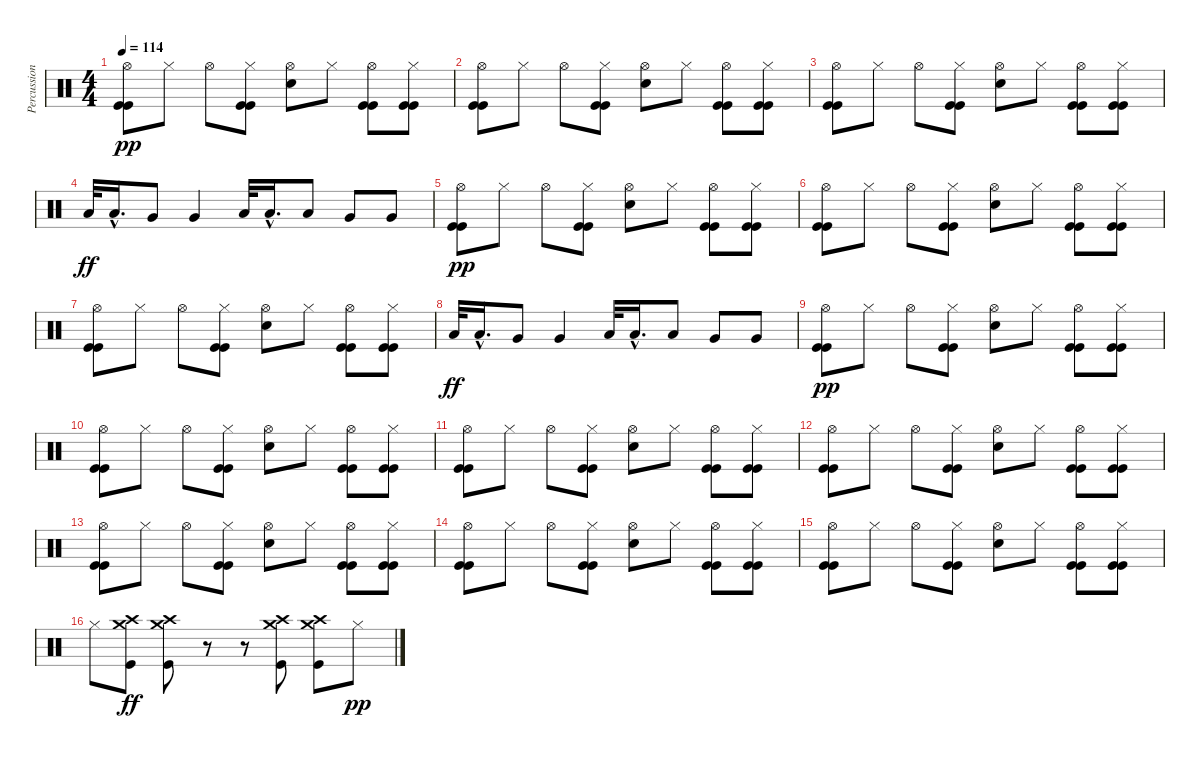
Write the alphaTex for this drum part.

\track ("Percussion" "Percussion") {instrument percussion}
\staff {score}
\articulation defaults
\ts (4 4)
\tempo 114
\clef neutral
\ks c
("Kick (hit)" "Hi-Hat (open)" "Kick (hit)").8{dy pp} "Hi-Hat (closed)".8 "Hi-Hat (open)".8 ("Kick (hit)" "Hi-Hat (closed)" "Kick (hit)").8 ("Snare (hit) 2" "Hi-Hat (open)").8 "Hi-Hat (closed)".8 ("Kick (hit)" "Hi-Hat (open)" "Kick (hit)").8 ("Kick (hit)" "Hi-Hat (closed)" "Kick (hit)").8 |
("Kick (hit)" "Hi-Hat (open)" "Kick (hit)").8 "Hi-Hat (closed)".8 "Hi-Hat (open)".8 ("Kick (hit)" "Hi-Hat (closed)" "Kick (hit)").8 ("Snare (hit) 2" "Hi-Hat (open)").8 "Hi-Hat (closed)".8 ("Kick (hit)" "Hi-Hat (open)" "Kick (hit)").8 ("Kick (hit)" "Hi-Hat (closed)" "Kick (hit)").8 |
("Kick (hit)" "Hi-Hat (open)" "Kick (hit)").8 "Hi-Hat (closed)".8 "Hi-Hat (open)".8 ("Kick (hit)" "Hi-Hat (closed)" "Kick (hit)").8 ("Snare (hit) 2" "Hi-Hat (open)").8 "Hi-Hat (closed)".8 ("Kick (hit)" "Hi-Hat (open)" "Kick (hit)").8 ("Kick (hit)" "Hi-Hat (closed)" "Kick (hit)").8 |
"Low Tom (hit)".32{dy ff} "Low Tom (hit)"{hac}.16{d} "Very Low Tom (hit)".8 "Very Low Tom (hit)".4 "Low Tom (hit)".32 "Low Tom (hit)"{hac}.16{d} "Low Tom (hit)".8 "Very Low Tom (hit)".8 "Very Low Tom (hit)".8 |
("Kick (hit)" "Hi-Hat (open)" "Kick (hit)").8{dy pp} "Hi-Hat (closed)".8 "Hi-Hat (open)".8 ("Kick (hit)" "Hi-Hat (closed)" "Kick (hit)").8 ("Snare (hit) 2" "Hi-Hat (open)").8 "Hi-Hat (closed)".8 ("Kick (hit)" "Hi-Hat (open)" "Kick (hit)").8 ("Kick (hit)" "Hi-Hat (closed)" "Kick (hit)").8 |
("Kick (hit)" "Hi-Hat (open)" "Kick (hit)").8 "Hi-Hat (closed)".8 "Hi-Hat (open)".8 ("Kick (hit)" "Hi-Hat (closed)" "Kick (hit)").8 ("Snare (hit) 2" "Hi-Hat (open)").8 "Hi-Hat (closed)".8 ("Kick (hit)" "Hi-Hat (open)" "Kick (hit)").8 ("Kick (hit)" "Hi-Hat (closed)" "Kick (hit)").8 |
("Kick (hit)" "Hi-Hat (open)" "Kick (hit)").8 "Hi-Hat (closed)".8 "Hi-Hat (open)".8 ("Kick (hit)" "Hi-Hat (closed)" "Kick (hit)").8 ("Snare (hit) 2" "Hi-Hat (open)").8 "Hi-Hat (closed)".8 ("Kick (hit)" "Hi-Hat (open)" "Kick (hit)").8 ("Kick (hit)" "Hi-Hat (closed)" "Kick (hit)").8 |
"Low Tom (hit)".32{dy ff} "Low Tom (hit)"{hac}.16{d} "Very Low Tom (hit)".8 "Very Low Tom (hit)".4 "Low Tom (hit)".32 "Low Tom (hit)"{hac}.16{d} "Low Tom (hit)".8 "Very Low Tom (hit)".8 "Very Low Tom (hit)".8 |
("Kick (hit)" "Hi-Hat (open)" "Kick (hit)").8{dy pp} "Hi-Hat (closed)".8 "Hi-Hat (open)".8 ("Kick (hit)" "Hi-Hat (closed)" "Kick (hit)").8 ("Snare (hit) 2" "Hi-Hat (open)").8 "Hi-Hat (closed)".8 ("Kick (hit)" "Hi-Hat (open)" "Kick (hit)").8 ("Kick (hit)" "Hi-Hat (closed)" "Kick (hit)").8 |
("Kick (hit)" "Hi-Hat (open)" "Kick (hit)").8 "Hi-Hat (closed)".8 "Hi-Hat (open)".8 ("Kick (hit)" "Hi-Hat (closed)" "Kick (hit)").8 ("Snare (hit) 2" "Hi-Hat (open)").8 "Hi-Hat (closed)".8 ("Kick (hit)" "Hi-Hat (open)" "Kick (hit)").8 ("Kick (hit)" "Hi-Hat (closed)" "Kick (hit)").8 |
("Kick (hit)" "Hi-Hat (open)" "Kick (hit)").8 "Hi-Hat (closed)".8 "Hi-Hat (open)".8 ("Kick (hit)" "Hi-Hat (closed)" "Kick (hit)").8 ("Snare (hit) 2" "Hi-Hat (open)").8 "Hi-Hat (closed)".8 ("Kick (hit)" "Hi-Hat (open)" "Kick (hit)").8 ("Kick (hit)" "Hi-Hat (closed)" "Kick (hit)").8 |
("Kick (hit)" "Hi-Hat (open)" "Kick (hit)").8 "Hi-Hat (closed)".8 "Hi-Hat (open)".8 ("Kick (hit)" "Hi-Hat (closed)" "Kick (hit)").8 ("Snare (hit) 2" "Hi-Hat (open)").8 "Hi-Hat (closed)".8 ("Kick (hit)" "Hi-Hat (open)" "Kick (hit)").8 ("Kick (hit)" "Hi-Hat (closed)" "Kick (hit)").8 |
("Kick (hit)" "Hi-Hat (open)" "Kick (hit)").8 "Hi-Hat (closed)".8 "Hi-Hat (open)".8 ("Kick (hit)" "Hi-Hat (closed)" "Kick (hit)").8 ("Snare (hit) 2" "Hi-Hat (open)").8 "Hi-Hat (closed)".8 ("Kick (hit)" "Hi-Hat (open)" "Kick (hit)").8 ("Kick (hit)" "Hi-Hat (closed)" "Kick (hit)").8 |
("Kick (hit)" "Hi-Hat (open)" "Kick (hit)").8 "Hi-Hat (closed)".8 "Hi-Hat (open)".8 ("Kick (hit)" "Hi-Hat (closed)" "Kick (hit)").8 ("Snare (hit) 2" "Hi-Hat (open)").8 "Hi-Hat (closed)".8 ("Kick (hit)" "Hi-Hat (open)" "Kick (hit)").8 ("Kick (hit)" "Hi-Hat (closed)" "Kick (hit)").8 |
("Kick (hit)" "Hi-Hat (open)" "Kick (hit)").8 "Hi-Hat (closed)".8 "Hi-Hat (open)".8 ("Kick (hit)" "Hi-Hat (closed)" "Kick (hit)").8 ("Snare (hit) 2" "Hi-Hat (open)").8 "Hi-Hat (closed)".8 ("Kick (hit)" "Hi-Hat (open)" "Kick (hit)").8 ("Kick (hit)" "Hi-Hat (closed)" "Kick (hit)").8 |
"Hi-Hat (closed)".8 ("Kick (hit)" "Crash high (hit)" "Crash medium (hit)").8{dy ff} ("Kick (hit)" "Crash high (hit)" "Crash medium (hit)").8 r.8 r.8 ("Kick (hit)" "Crash high (hit)" "Crash medium (hit)").8 ("Kick (hit)" "Crash high (hit)" "Crash medium (hit)").8 "Hi-Hat (closed)".8{dy pp}
